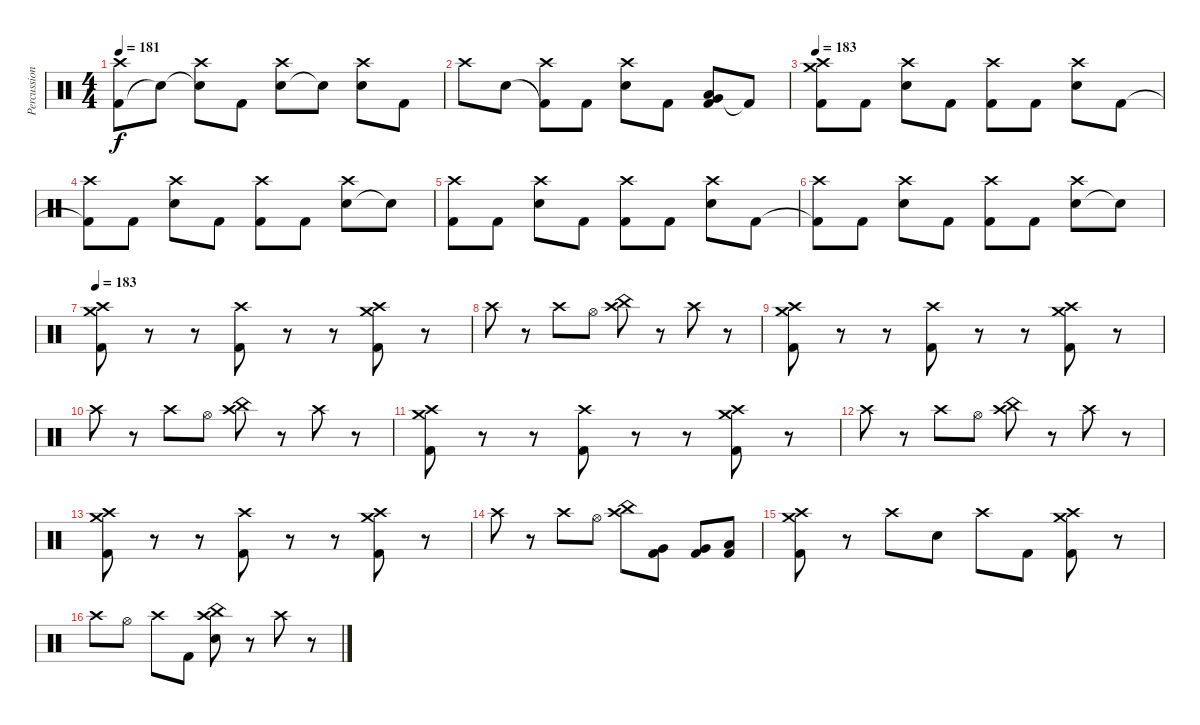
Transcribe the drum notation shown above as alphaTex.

\track ("Percussion" "Percussion") {instrument percussion}
\staff {score}
\articulation defaults
\ts (4 4)
\tempo 181
\clef neutral
\ks c
("Kick (hit) 2" "Crash high (hit)").8{dy f} "Snare (hit)"{t}.8 ("Snare (hit)"{t} "Crash high (hit)").8 "Kick (hit) 2".8 ("Snare (hit) 2" "Crash high (hit)").8 "Snare (hit)"{t}.8 ("Snare (hit) 2" "Crash high (hit)").8 "Kick (hit) 2".8 |
"Crash high (hit)".8 "Snare (hit) 2".8 ("Kick (hit) 2"{t} "Crash high (hit)").8 "Kick (hit) 2".8 ("Snare (hit) 2" "Crash high (hit)").8 "Kick (hit) 2".8 ("Very Low Tom (hit)" "Low Floor Tom (hit)" "Kick (hit) 2").8 "Kick (hit) 2"{t}.8 |
\tempo 183
("Kick (hit) 2" "Crash high (hit)" "Crash medium (hit)").8 "Kick (hit) 2".8 ("Snare (hit) 2" "Crash high (hit)").8 "Kick (hit) 2".8 ("Kick (hit) 2" "Crash high (hit)").8 "Kick (hit) 2".8 ("Snare (hit) 2" "Crash high (hit)").8 "Kick (hit) 2".8 |
("Kick (hit) 2"{t} "Crash high (hit)").8 "Kick (hit) 2".8 ("Snare (hit) 2" "Crash high (hit)").8 "Kick (hit) 2".8 ("Kick (hit) 2" "Crash high (hit)").8 "Kick (hit) 2".8 ("Snare (hit) 2" "Crash high (hit)").8 "Snare (hit)"{t}.8 |
("Kick (hit) 2" "Crash high (hit)").8 "Kick (hit) 2".8 ("Snare (hit) 2" "Crash high (hit)").8 "Kick (hit) 2".8 ("Kick (hit) 2" "Crash high (hit)").8 "Kick (hit) 2".8 ("Snare (hit) 2" "Crash high (hit)").8 "Kick (hit) 2".8 |
("Kick (hit) 2"{t} "Crash high (hit)").8 "Kick (hit) 2".8 ("Snare (hit) 2" "Crash high (hit)").8 "Kick (hit) 2".8 ("Kick (hit) 2" "Crash high (hit)").8 "Kick (hit) 2".8 ("Snare (hit) 2" "Crash high (hit)").8 "Snare (hit)"{t}.8 |
\tempo 181
\tempo 183
("Crash high (hit)" "Crash medium (hit)" "Kick (hit) 2").8 r.8 r.8 ("Crash high (hit)" "Kick (hit) 2").8 r.8 r.8 ("Crash high (hit)" "Crash medium (hit)" "Kick (hit) 2").8 r.8 |
"Crash high (hit)".8 r.8 "Crash high (hit)".8 "Hi-Hat (open)".8 ("Crash high (hit)" "China (hit)").8 r.8 "Crash high (hit)".8 r.8 |
("Crash high (hit)" "Crash medium (hit)" "Kick (hit) 2").8 r.8 r.8 ("Crash high (hit)" "Kick (hit) 2").8 r.8 r.8 ("Crash high (hit)" "Crash medium (hit)" "Kick (hit) 2").8 r.8 |
"Crash high (hit)".8 r.8 "Crash high (hit)".8 "Hi-Hat (open)".8 ("Crash high (hit)" "China (hit)").8 r.8 "Crash high (hit)".8 r.8 |
("Crash high (hit)" "Crash medium (hit)" "Kick (hit) 2").8 r.8 r.8 ("Crash high (hit)" "Kick (hit) 2").8 r.8 r.8 ("Crash high (hit)" "Crash medium (hit)" "Kick (hit) 2").8 r.8 |
"Crash high (hit)".8 r.8 "Crash high (hit)".8 "Hi-Hat (open)".8 ("Crash high (hit)" "China (hit)").8 r.8 "Crash high (hit)".8 r.8 |
("Crash high (hit)" "Crash medium (hit)" "Kick (hit) 2").8 r.8 r.8 ("Crash high (hit)" "Kick (hit) 2").8 r.8 r.8 ("Crash high (hit)" "Crash medium (hit)" "Kick (hit) 2").8 r.8 |
"Crash high (hit)".8 r.8 "Crash high (hit)".8 "Hi-Hat (open)".8 ("Crash high (hit)" "China (hit)").8 ("Kick (hit) 2" "Very Low Tom (hit)").8 ("Kick (hit) 2" "Very Low Tom (hit)").8 ("Kick (hit) 2" "Low Floor Tom (hit)").8 |
("Crash high (hit)" "Crash medium (hit)" "Kick (hit) 2").8 r.8 "Crash high (hit)".8 "Snare (hit) 2".8 "Crash high (hit)".8 "Kick (hit) 2".8 ("Crash high (hit)" "Crash medium (hit)" "Kick (hit) 2").8 r.8 |
"Crash high (hit)".8 "Hi-Hat (open)".8 "Crash high (hit)".8 "Kick (hit) 2".8 ("Crash high (hit)" "Snare (hit) 2" "China (hit)").8 r.8 "Crash high (hit)".8 r.8
